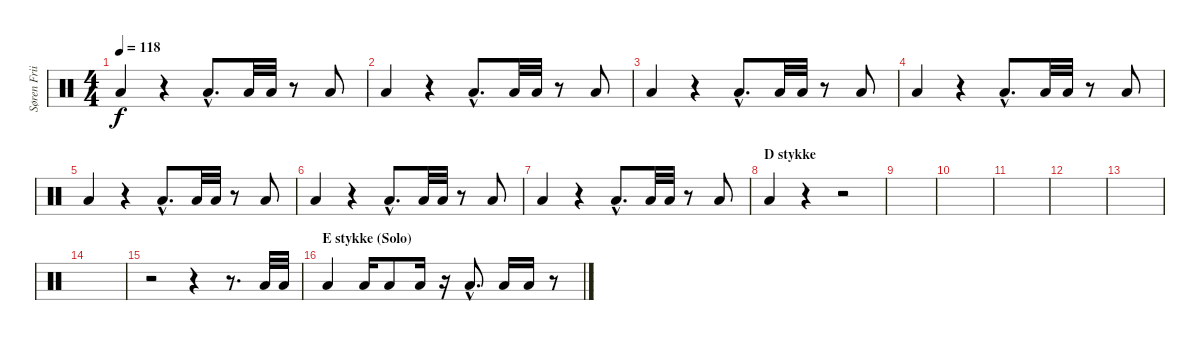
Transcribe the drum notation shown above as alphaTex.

\track ("Søren Friis (Drums)" "Søren Frii") {instrument percussion}
\staff {score}
\articulation defaults
\ts (4 4)
\tempo 118
\clef neutral
\ks c "Low Floor Tom (hit)".4{dy f}
r.4 "Low Floor Tom (hit)"{hac}.8{d} "Low Floor Tom (hit)".32 "Low Floor Tom (hit)".32 r.8 "Low Floor Tom (hit)".8 |
"Low Floor Tom (hit)".4 r.4 "Low Floor Tom (hit)"{hac}.8{d} "Low Floor Tom (hit)".32 "Low Floor Tom (hit)".32 r.8 "Low Floor Tom (hit)".8 |
"Low Floor Tom (hit)".4 r.4 "Low Floor Tom (hit)"{hac}.8{d} "Low Floor Tom (hit)".32 "Low Floor Tom (hit)".32 r.8 "Low Floor Tom (hit)".8 |
"Low Floor Tom (hit)".4 r.4 "Low Floor Tom (hit)"{hac}.8{d} "Low Floor Tom (hit)".32 "Low Floor Tom (hit)".32 r.8 "Low Floor Tom (hit)".8 |
"Low Floor Tom (hit)".4 r.4 "Low Floor Tom (hit)"{hac}.8{d} "Low Floor Tom (hit)".32 "Low Floor Tom (hit)".32 r.8 "Low Floor Tom (hit)".8 |
"Low Floor Tom (hit)".4 r.4 "Low Floor Tom (hit)"{hac}.8{d} "Low Floor Tom (hit)".32 "Low Floor Tom (hit)".32 r.8 "Low Floor Tom (hit)".8 |
"Low Floor Tom (hit)".4 r.4 "Low Floor Tom (hit)"{hac}.8{d} "Low Floor Tom (hit)".32 "Low Floor Tom (hit)".32 r.8 "Low Floor Tom (hit)".8 |
\section ("" "D stykke")
"Low Floor Tom (hit)".4 r.4 r.2 |
|
|
|
|
|
|
r.2 r.4 r.8{d} "Low Floor Tom (hit)".32 "Low Floor Tom (hit)".32 |
\section ("" "E stykke (Solo)")
"Low Floor Tom (hit)".4 "Low Floor Tom (hit)".16 "Low Floor Tom (hit)".8 "Low Floor Tom (hit)".16 r.16 "Low Floor Tom (hit)"{hac}.8{d} "Low Floor Tom (hit)".16 "Low Floor Tom (hit)".16 r.8
